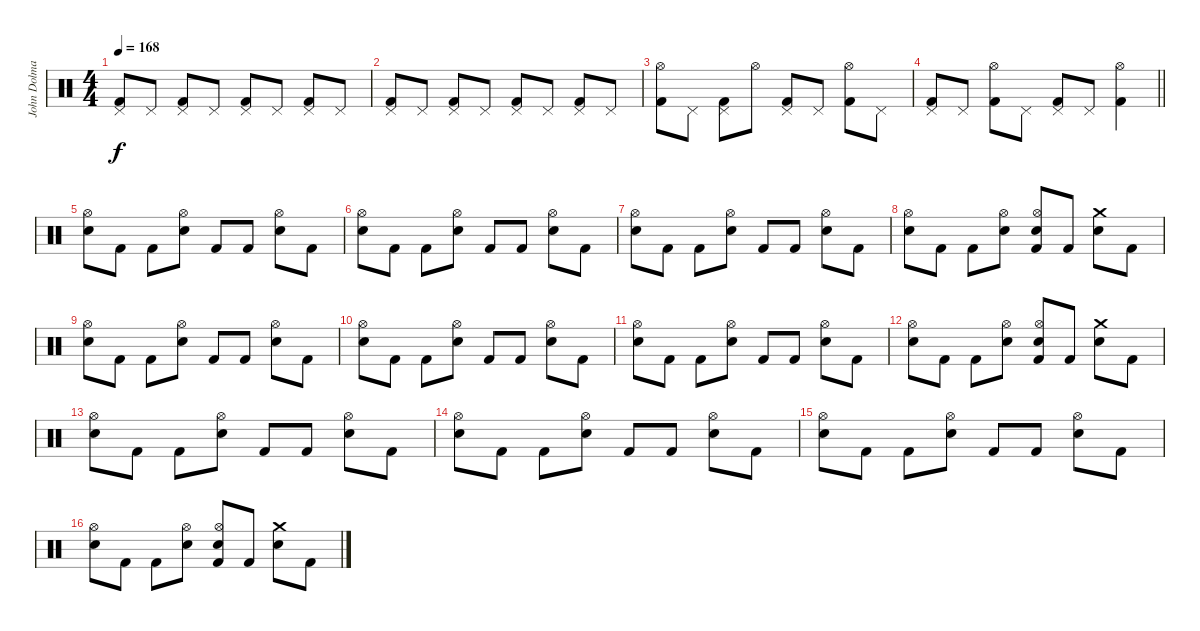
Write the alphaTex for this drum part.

\track ("John Dolmayan" "John Dolma") {instrument percussion}
\staff {score}
\articulation defaults
\ts (4 4)
\tempo 168
\clef neutral
\ks c
("Pedal Hi-Hat (hit)" "Kick (hit) 2").8{dy f} "Pedal Hi-Hat (hit)".8 ("Pedal Hi-Hat (hit)" "Kick (hit) 2").8 "Pedal Hi-Hat (hit)".8 ("Pedal Hi-Hat (hit)" "Kick (hit) 2").8 "Pedal Hi-Hat (hit)".8 ("Pedal Hi-Hat (hit)" "Kick (hit) 2").8 "Pedal Hi-Hat (hit)".8 |
("Pedal Hi-Hat (hit)" "Kick (hit) 2").8 "Pedal Hi-Hat (hit)".8 ("Pedal Hi-Hat (hit)" "Kick (hit) 2").8 "Pedal Hi-Hat (hit)".8 ("Pedal Hi-Hat (hit)" "Kick (hit) 2").8 "Pedal Hi-Hat (hit)".8 ("Pedal Hi-Hat (hit)" "Kick (hit) 2").8 "Pedal Hi-Hat (hit)".8 |
("Hi-Hat (open)" "Kick (hit) 2").8 "Pedal Hi-Hat (hit)".8 ("Pedal Hi-Hat (hit)" "Kick (hit) 2").8 "Hi-Hat (open)".8 ("Pedal Hi-Hat (hit)" "Kick (hit) 2").8 "Pedal Hi-Hat (hit)".8 ("Hi-Hat (open)" "Kick (hit) 2").8 "Pedal Hi-Hat (hit)".8 |
\barLineRight lightlight
("Pedal Hi-Hat (hit)" "Kick (hit) 2").8 "Pedal Hi-Hat (hit)".8 ("Hi-Hat (open)" "Kick (hit) 2").8 "Pedal Hi-Hat (hit)".8 ("Pedal Hi-Hat (hit)" "Kick (hit) 2").8 "Pedal Hi-Hat (hit)".8 ("Hi-Hat (open)" "Kick (hit) 2").4 |
("Hi-Hat (open)" "Electric Snare (hit)").8 "Kick (hit) 2".8 "Kick (hit) 2".8 ("Hi-Hat (open)" "Electric Snare (hit)").8 "Kick (hit) 2".8 "Kick (hit) 2".8 ("Hi-Hat (open)" "Electric Snare (hit)").8 "Kick (hit) 2".8 |
("Hi-Hat (open)" "Electric Snare (hit)").8 "Kick (hit) 2".8 "Kick (hit) 2".8 ("Hi-Hat (open)" "Electric Snare (hit)").8 "Kick (hit) 2".8 "Kick (hit) 2".8 ("Hi-Hat (open)" "Electric Snare (hit)").8 "Kick (hit) 2".8 |
("Hi-Hat (open)" "Electric Snare (hit)").8 "Kick (hit) 2".8 "Kick (hit) 2".8 ("Hi-Hat (open)" "Electric Snare (hit)").8 "Kick (hit) 2".8 "Kick (hit) 2".8 ("Hi-Hat (open)" "Electric Snare (hit)").8 "Kick (hit) 2".8 |
("Hi-Hat (open)" "Electric Snare (hit)").8 "Kick (hit) 2".8 "Kick (hit) 2".8 ("Hi-Hat (open)" "Electric Snare (hit)").8 ("Hi-Hat (open)" "Electric Snare (hit)" "Kick (hit) 2").8 "Kick (hit) 2".8 ("Crash medium (hit)" "Electric Snare (hit)").8 "Kick (hit) 2".8 |
("Hi-Hat (open)" "Electric Snare (hit)").8 "Kick (hit) 2".8 "Kick (hit) 2".8 ("Hi-Hat (open)" "Electric Snare (hit)").8 "Kick (hit) 2".8 "Kick (hit) 2".8 ("Hi-Hat (open)" "Electric Snare (hit)").8 "Kick (hit) 2".8 |
("Hi-Hat (open)" "Electric Snare (hit)").8 "Kick (hit) 2".8 "Kick (hit) 2".8 ("Hi-Hat (open)" "Electric Snare (hit)").8 "Kick (hit) 2".8 "Kick (hit) 2".8 ("Hi-Hat (open)" "Electric Snare (hit)").8 "Kick (hit) 2".8 |
("Hi-Hat (open)" "Electric Snare (hit)").8 "Kick (hit) 2".8 "Kick (hit) 2".8 ("Hi-Hat (open)" "Electric Snare (hit)").8 "Kick (hit) 2".8 "Kick (hit) 2".8 ("Hi-Hat (open)" "Electric Snare (hit)").8 "Kick (hit) 2".8 |
("Hi-Hat (open)" "Electric Snare (hit)").8 "Kick (hit) 2".8 "Kick (hit) 2".8 ("Hi-Hat (open)" "Electric Snare (hit)").8 ("Hi-Hat (open)" "Electric Snare (hit)" "Kick (hit) 2").8 "Kick (hit) 2".8 ("Crash medium (hit)" "Electric Snare (hit)").8 "Kick (hit) 2".8 |
("Hi-Hat (open)" "Electric Snare (hit)").8 "Kick (hit) 2".8 "Kick (hit) 2".8 ("Hi-Hat (open)" "Electric Snare (hit)").8 "Kick (hit) 2".8 "Kick (hit) 2".8 ("Hi-Hat (open)" "Electric Snare (hit)").8 "Kick (hit) 2".8 |
("Hi-Hat (open)" "Electric Snare (hit)").8 "Kick (hit) 2".8 "Kick (hit) 2".8 ("Hi-Hat (open)" "Electric Snare (hit)").8 "Kick (hit) 2".8 "Kick (hit) 2".8 ("Hi-Hat (open)" "Electric Snare (hit)").8 "Kick (hit) 2".8 |
("Hi-Hat (open)" "Electric Snare (hit)").8 "Kick (hit) 2".8 "Kick (hit) 2".8 ("Hi-Hat (open)" "Electric Snare (hit)").8 "Kick (hit) 2".8 "Kick (hit) 2".8 ("Hi-Hat (open)" "Electric Snare (hit)").8 "Kick (hit) 2".8 |
("Hi-Hat (open)" "Electric Snare (hit)").8 "Kick (hit) 2".8 "Kick (hit) 2".8 ("Hi-Hat (open)" "Electric Snare (hit)").8 ("Hi-Hat (open)" "Electric Snare (hit)" "Kick (hit) 2").8 "Kick (hit) 2".8 ("Crash medium (hit)" "Electric Snare (hit)").8 "Kick (hit) 2".8
